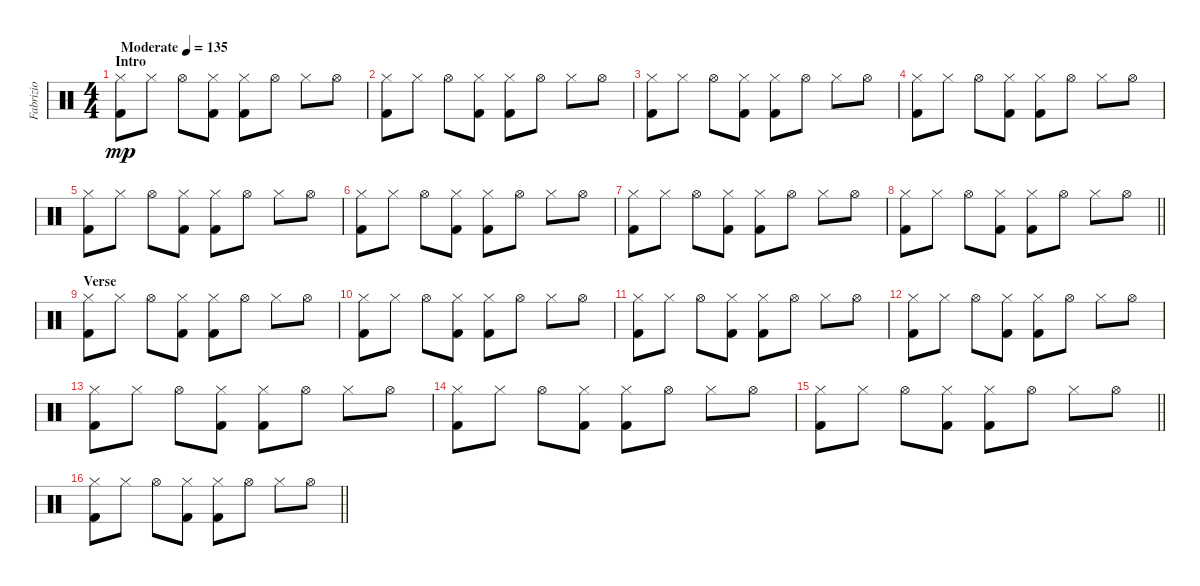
\track ("Fabrizio" "Fabrizio") {instrument percussion}
\staff {score}
\articulation defaults
\ts (4 4)
\section ("" "Intro")
\tempo (135 "Moderate")
\clef neutral
\ks c
("Hi-Hat (closed)" "Kick (hit) 2").8{dy mp} "Hi-Hat (closed)".8 "Hi-Hat (open)".8 ("Hi-Hat (closed)" "Kick (hit) 2").8 ("Hi-Hat (closed)" "Kick (hit) 2").8 "Hi-Hat (open)".8 "Hi-Hat (closed)".8 "Hi-Hat (open)".8 |
("Hi-Hat (closed)" "Kick (hit) 2").8 "Hi-Hat (closed)".8 "Hi-Hat (open)".8 ("Hi-Hat (closed)" "Kick (hit) 2").8 ("Hi-Hat (closed)" "Kick (hit) 2").8 "Hi-Hat (open)".8 "Hi-Hat (closed)".8 "Hi-Hat (open)".8 |
("Hi-Hat (closed)" "Kick (hit) 2").8 "Hi-Hat (closed)".8 "Hi-Hat (open)".8 ("Hi-Hat (closed)" "Kick (hit) 2").8 ("Hi-Hat (closed)" "Kick (hit) 2").8 "Hi-Hat (open)".8 "Hi-Hat (closed)".8 "Hi-Hat (open)".8 |
("Hi-Hat (closed)" "Kick (hit) 2").8 "Hi-Hat (closed)".8 "Hi-Hat (open)".8 ("Hi-Hat (closed)" "Kick (hit) 2").8 ("Hi-Hat (closed)" "Kick (hit) 2").8 "Hi-Hat (open)".8 "Hi-Hat (closed)".8 "Hi-Hat (open)".8 |
("Hi-Hat (closed)" "Kick (hit) 2").8 "Hi-Hat (closed)".8 "Hi-Hat (open)".8 ("Hi-Hat (closed)" "Kick (hit) 2").8 ("Hi-Hat (closed)" "Kick (hit) 2").8 "Hi-Hat (open)".8 "Hi-Hat (closed)".8 "Hi-Hat (open)".8 |
("Hi-Hat (closed)" "Kick (hit) 2").8 "Hi-Hat (closed)".8 "Hi-Hat (open)".8 ("Hi-Hat (closed)" "Kick (hit) 2").8 ("Hi-Hat (closed)" "Kick (hit) 2").8 "Hi-Hat (open)".8 "Hi-Hat (closed)".8 "Hi-Hat (open)".8 |
("Hi-Hat (closed)" "Kick (hit) 2").8 "Hi-Hat (closed)".8 "Hi-Hat (open)".8 ("Hi-Hat (closed)" "Kick (hit) 2").8 ("Hi-Hat (closed)" "Kick (hit) 2").8 "Hi-Hat (open)".8 "Hi-Hat (closed)".8 "Hi-Hat (open)".8 |
\barLineRight lightlight
("Hi-Hat (closed)" "Kick (hit) 2").8 "Hi-Hat (closed)".8 "Hi-Hat (open)".8 ("Hi-Hat (closed)" "Kick (hit) 2").8 ("Hi-Hat (closed)" "Kick (hit) 2").8 "Hi-Hat (open)".8 "Hi-Hat (closed)".8 "Hi-Hat (open)".8 |
\section ("" "Verse")
("Hi-Hat (closed)" "Kick (hit) 2").8 "Hi-Hat (closed)".8 "Hi-Hat (open)".8 ("Hi-Hat (closed)" "Kick (hit) 2").8 ("Hi-Hat (closed)" "Kick (hit) 2").8 "Hi-Hat (open)".8 "Hi-Hat (closed)".8 "Hi-Hat (open)".8 |
("Hi-Hat (closed)" "Kick (hit) 2").8 "Hi-Hat (closed)".8 "Hi-Hat (open)".8 ("Hi-Hat (closed)" "Kick (hit) 2").8 ("Hi-Hat (closed)" "Kick (hit) 2").8 "Hi-Hat (open)".8 "Hi-Hat (closed)".8 "Hi-Hat (open)".8 |
("Hi-Hat (closed)" "Kick (hit) 2").8 "Hi-Hat (closed)".8 "Hi-Hat (open)".8 ("Hi-Hat (closed)" "Kick (hit) 2").8 ("Hi-Hat (closed)" "Kick (hit) 2").8 "Hi-Hat (open)".8 "Hi-Hat (closed)".8 "Hi-Hat (open)".8 |
("Hi-Hat (closed)" "Kick (hit) 2").8 "Hi-Hat (closed)".8 "Hi-Hat (open)".8 ("Hi-Hat (closed)" "Kick (hit) 2").8 ("Hi-Hat (closed)" "Kick (hit) 2").8 "Hi-Hat (open)".8 "Hi-Hat (closed)".8 "Hi-Hat (open)".8 |
("Hi-Hat (closed)" "Kick (hit) 2").8 "Hi-Hat (closed)".8 "Hi-Hat (open)".8 ("Hi-Hat (closed)" "Kick (hit) 2").8 ("Hi-Hat (closed)" "Kick (hit) 2").8 "Hi-Hat (open)".8 "Hi-Hat (closed)".8 "Hi-Hat (open)".8 |
("Hi-Hat (closed)" "Kick (hit) 2").8 "Hi-Hat (closed)".8 "Hi-Hat (open)".8 ("Hi-Hat (closed)" "Kick (hit) 2").8 ("Hi-Hat (closed)" "Kick (hit) 2").8 "Hi-Hat (open)".8 "Hi-Hat (closed)".8 "Hi-Hat (open)".8 |
\barLineRight lightlight
("Hi-Hat (closed)" "Kick (hit) 2").8 "Hi-Hat (closed)".8 "Hi-Hat (open)".8 ("Hi-Hat (closed)" "Kick (hit) 2").8 ("Hi-Hat (closed)" "Kick (hit) 2").8 "Hi-Hat (open)".8 "Hi-Hat (closed)".8 "Hi-Hat (open)".8 |
\barLineRight lightlight
("Hi-Hat (closed)" "Kick (hit) 2").8 "Hi-Hat (closed)".8 "Hi-Hat (open)".8 ("Hi-Hat (closed)" "Kick (hit) 2").8 ("Hi-Hat (closed)" "Kick (hit) 2").8 "Hi-Hat (open)".8 "Hi-Hat (closed)".8 "Hi-Hat (open)".8
